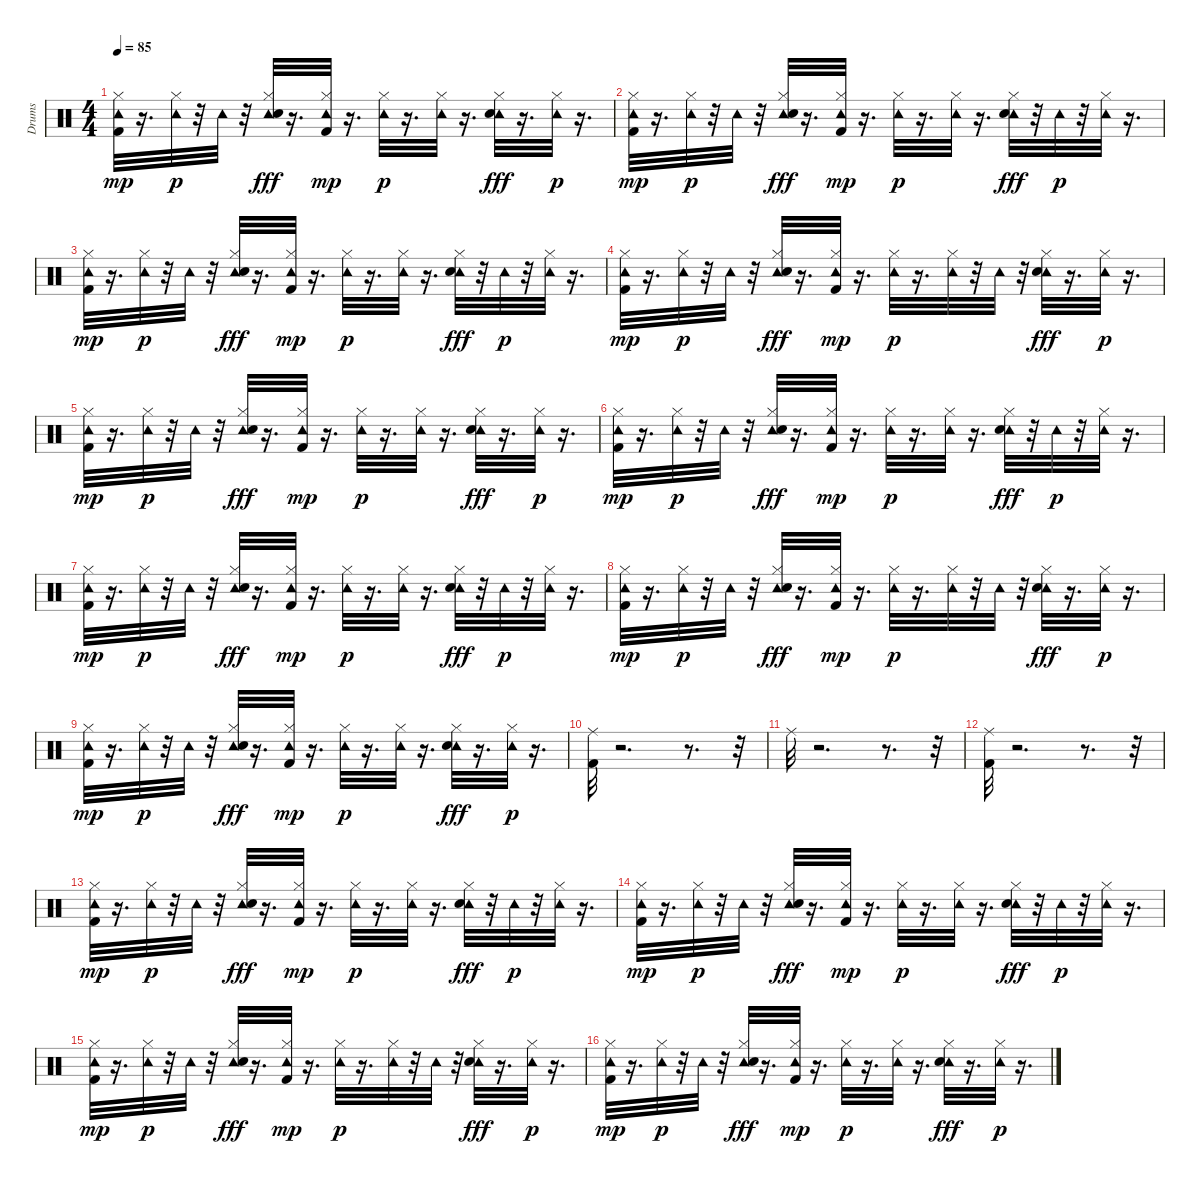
\track ("Drums" "Drums") {instrument percussion}
\staff {score}
\articulation defaults
\ts (4 4)
\tempo 85
\clef neutral
\ks c
("Tambourine (hit)" "Hi-Hat (closed)" "Kick (hit) 2").32{dy mp} r.16{d} ("Tambourine (hit)" "Hi-Hat (closed)").32{dy p} r.32 "Tambourine (hit)".32 r.32 ("Tambourine (hit)" "Hi-Hat (closed)" "Electric Snare (hit)").32{dy fff} r.16{d} ("Tambourine (hit)" "Hi-Hat (closed)" "Kick (hit) 2").32{dy mp} r.16{d} ("Tambourine (hit)" "Hi-Hat (closed)").32{dy p} r.16{d} ("Tambourine (hit)" "Hi-Hat (closed)").32 r.16{d} ("Tambourine (hit)" "Hi-Hat (closed)" "Electric Snare (hit)").32{dy fff} r.16{d} ("Tambourine (hit)" "Hi-Hat (closed)").32{dy p} r.16{d} |
("Tambourine (hit)" "Hi-Hat (closed)" "Kick (hit) 2").32{dy mp} r.16{d} ("Tambourine (hit)" "Hi-Hat (closed)").32{dy p} r.32 "Tambourine (hit)".32 r.32 ("Tambourine (hit)" "Hi-Hat (closed)" "Electric Snare (hit)").32{dy fff} r.16{d} ("Tambourine (hit)" "Hi-Hat (closed)" "Kick (hit) 2").32{dy mp} r.16{d} ("Tambourine (hit)" "Hi-Hat (closed)").32{dy p} r.16{d} ("Tambourine (hit)" "Hi-Hat (closed)").32 r.16{d} ("Tambourine (hit)" "Hi-Hat (closed)" "Electric Snare (hit)").32{dy fff} r.32 "Tambourine (hit)".32{dy p} r.32 ("Tambourine (hit)" "Hi-Hat (closed)").32 r.16{d} |
("Tambourine (hit)" "Hi-Hat (closed)" "Kick (hit) 2").32{dy mp} r.16{d} ("Tambourine (hit)" "Hi-Hat (closed)").32{dy p} r.32 "Tambourine (hit)".32 r.32 ("Tambourine (hit)" "Hi-Hat (closed)" "Electric Snare (hit)").32{dy fff} r.16{d} ("Tambourine (hit)" "Hi-Hat (closed)" "Kick (hit) 2").32{dy mp} r.16{d} ("Tambourine (hit)" "Hi-Hat (closed)").32{dy p} r.16{d} ("Tambourine (hit)" "Hi-Hat (closed)").32 r.16{d} ("Tambourine (hit)" "Hi-Hat (closed)" "Electric Snare (hit)").32{dy fff} r.32 "Tambourine (hit)".32{dy p} r.32 ("Tambourine (hit)" "Hi-Hat (closed)").32 r.16{d} |
("Tambourine (hit)" "Hi-Hat (closed)" "Kick (hit) 2").32{dy mp} r.16{d} ("Tambourine (hit)" "Hi-Hat (closed)").32{dy p} r.32 "Tambourine (hit)".32 r.32 ("Tambourine (hit)" "Hi-Hat (closed)" "Electric Snare (hit)").32{dy fff} r.16{d} ("Tambourine (hit)" "Hi-Hat (closed)" "Kick (hit) 2").32{dy mp} r.16{d} ("Tambourine (hit)" "Hi-Hat (closed)").32{dy p} r.16{d} ("Tambourine (hit)" "Hi-Hat (closed)").32 r.32 "Tambourine (hit)".32 r.32 ("Tambourine (hit)" "Hi-Hat (closed)" "Electric Snare (hit)").32{dy fff} r.16{d} ("Tambourine (hit)" "Hi-Hat (closed)").32{dy p} r.16{d} |
("Tambourine (hit)" "Hi-Hat (closed)" "Kick (hit) 2").32{dy mp} r.16{d} ("Tambourine (hit)" "Hi-Hat (closed)").32{dy p} r.32 "Tambourine (hit)".32 r.32 ("Tambourine (hit)" "Hi-Hat (closed)" "Electric Snare (hit)").32{dy fff} r.16{d} ("Tambourine (hit)" "Hi-Hat (closed)" "Kick (hit) 2").32{dy mp} r.16{d} ("Tambourine (hit)" "Hi-Hat (closed)").32{dy p} r.16{d} ("Tambourine (hit)" "Hi-Hat (closed)").32 r.16{d} ("Tambourine (hit)" "Hi-Hat (closed)" "Electric Snare (hit)").32{dy fff} r.16{d} ("Tambourine (hit)" "Hi-Hat (closed)").32{dy p} r.16{d} |
("Tambourine (hit)" "Hi-Hat (closed)" "Kick (hit) 2").32{dy mp} r.16{d} ("Tambourine (hit)" "Hi-Hat (closed)").32{dy p} r.32 "Tambourine (hit)".32 r.32 ("Tambourine (hit)" "Hi-Hat (closed)" "Electric Snare (hit)").32{dy fff} r.16{d} ("Tambourine (hit)" "Hi-Hat (closed)" "Kick (hit) 2").32{dy mp} r.16{d} ("Tambourine (hit)" "Hi-Hat (closed)").32{dy p} r.16{d} ("Tambourine (hit)" "Hi-Hat (closed)").32 r.16{d} ("Tambourine (hit)" "Hi-Hat (closed)" "Electric Snare (hit)").32{dy fff} r.32 "Tambourine (hit)".32{dy p} r.32 ("Tambourine (hit)" "Hi-Hat (closed)").32 r.16{d} |
("Tambourine (hit)" "Hi-Hat (closed)" "Kick (hit) 2").32{dy mp} r.16{d} ("Tambourine (hit)" "Hi-Hat (closed)").32{dy p} r.32 "Tambourine (hit)".32 r.32 ("Tambourine (hit)" "Hi-Hat (closed)" "Electric Snare (hit)").32{dy fff} r.16{d} ("Tambourine (hit)" "Hi-Hat (closed)" "Kick (hit) 2").32{dy mp} r.16{d} ("Tambourine (hit)" "Hi-Hat (closed)").32{dy p} r.16{d} ("Tambourine (hit)" "Hi-Hat (closed)").32 r.16{d} ("Tambourine (hit)" "Hi-Hat (closed)" "Electric Snare (hit)").32{dy fff} r.32 "Tambourine (hit)".32{dy p} r.32 ("Tambourine (hit)" "Hi-Hat (closed)").32 r.16{d} |
("Tambourine (hit)" "Hi-Hat (closed)" "Kick (hit) 2").32{dy mp} r.16{d} ("Tambourine (hit)" "Hi-Hat (closed)").32{dy p} r.32 "Tambourine (hit)".32 r.32 ("Tambourine (hit)" "Hi-Hat (closed)" "Electric Snare (hit)").32{dy fff} r.16{d} ("Tambourine (hit)" "Hi-Hat (closed)" "Kick (hit) 2").32{dy mp} r.16{d} ("Tambourine (hit)" "Hi-Hat (closed)").32{dy p} r.16{d} ("Tambourine (hit)" "Hi-Hat (closed)").32 r.32 "Tambourine (hit)".32 r.32 ("Tambourine (hit)" "Hi-Hat (closed)" "Electric Snare (hit)").32{dy fff} r.16{d} ("Tambourine (hit)" "Hi-Hat (closed)").32{dy p} r.16{d} |
("Tambourine (hit)" "Hi-Hat (closed)" "Kick (hit) 2").32{dy mp} r.16{d} ("Tambourine (hit)" "Hi-Hat (closed)").32{dy p} r.32 "Tambourine (hit)".32 r.32 ("Tambourine (hit)" "Hi-Hat (closed)" "Electric Snare (hit)").32{dy fff} r.16{d} ("Tambourine (hit)" "Hi-Hat (closed)" "Kick (hit) 2").32{dy mp} r.16{d} ("Tambourine (hit)" "Hi-Hat (closed)").32{dy p} r.16{d} ("Tambourine (hit)" "Hi-Hat (closed)").32 r.16{d} ("Tambourine (hit)" "Hi-Hat (closed)" "Electric Snare (hit)").32{dy fff} r.16{d} ("Tambourine (hit)" "Hi-Hat (closed)").32{dy p} r.16{d} |
("Ride (middle)" "Kick (hit) 2").32 r.2{d} r.8{d} r.32 |
"Ride (middle)".32 r.2{d} r.8{d} r.32 |
("Kick (hit) 2" "Ride (middle)").32 r.2{d} r.8{d} r.32 |
("Tambourine (hit)" "Hi-Hat (closed)" "Kick (hit) 2").32{dy mp} r.16{d} ("Tambourine (hit)" "Hi-Hat (closed)").32{dy p} r.32 "Tambourine (hit)".32 r.32 ("Tambourine (hit)" "Hi-Hat (closed)" "Electric Snare (hit)").32{dy fff} r.16{d} ("Tambourine (hit)" "Hi-Hat (closed)" "Kick (hit) 2").32{dy mp} r.16{d} ("Tambourine (hit)" "Hi-Hat (closed)").32{dy p} r.16{d} ("Tambourine (hit)" "Hi-Hat (closed)").32 r.16{d} ("Tambourine (hit)" "Hi-Hat (closed)" "Electric Snare (hit)").32{dy fff} r.32 "Tambourine (hit)".32{dy p} r.32 ("Tambourine (hit)" "Hi-Hat (closed)").32 r.16{d} |
("Tambourine (hit)" "Hi-Hat (closed)" "Kick (hit) 2").32{dy mp} r.16{d} ("Tambourine (hit)" "Hi-Hat (closed)").32{dy p} r.32 "Tambourine (hit)".32 r.32 ("Tambourine (hit)" "Hi-Hat (closed)" "Electric Snare (hit)").32{dy fff} r.16{d} ("Tambourine (hit)" "Hi-Hat (closed)" "Kick (hit) 2").32{dy mp} r.16{d} ("Tambourine (hit)" "Hi-Hat (closed)").32{dy p} r.16{d} ("Tambourine (hit)" "Hi-Hat (closed)").32 r.16{d} ("Tambourine (hit)" "Hi-Hat (closed)" "Electric Snare (hit)").32{dy fff} r.32 "Tambourine (hit)".32{dy p} r.32 ("Tambourine (hit)" "Hi-Hat (closed)").32 r.16{d} |
("Tambourine (hit)" "Hi-Hat (closed)" "Kick (hit) 2").32{dy mp} r.16{d} ("Tambourine (hit)" "Hi-Hat (closed)").32{dy p} r.32 "Tambourine (hit)".32 r.32 ("Tambourine (hit)" "Hi-Hat (closed)" "Electric Snare (hit)").32{dy fff} r.16{d} ("Tambourine (hit)" "Hi-Hat (closed)" "Kick (hit) 2").32{dy mp} r.16{d} ("Tambourine (hit)" "Hi-Hat (closed)").32{dy p} r.16{d} ("Tambourine (hit)" "Hi-Hat (closed)").32 r.32 "Tambourine (hit)".32 r.32 ("Tambourine (hit)" "Hi-Hat (closed)" "Electric Snare (hit)").32{dy fff} r.16{d} ("Tambourine (hit)" "Hi-Hat (closed)").32{dy p} r.16{d} |
("Tambourine (hit)" "Hi-Hat (closed)" "Kick (hit) 2").32{dy mp} r.16{d} ("Tambourine (hit)" "Hi-Hat (closed)").32{dy p} r.32 "Tambourine (hit)".32 r.32 ("Tambourine (hit)" "Hi-Hat (closed)" "Electric Snare (hit)").32{dy fff} r.16{d} ("Tambourine (hit)" "Hi-Hat (closed)" "Kick (hit) 2").32{dy mp} r.16{d} ("Tambourine (hit)" "Hi-Hat (closed)").32{dy p} r.16{d} ("Tambourine (hit)" "Hi-Hat (closed)").32 r.16{d} ("Tambourine (hit)" "Hi-Hat (closed)" "Electric Snare (hit)").32{dy fff} r.16{d} ("Tambourine (hit)" "Hi-Hat (closed)").32{dy p} r.16{d}
